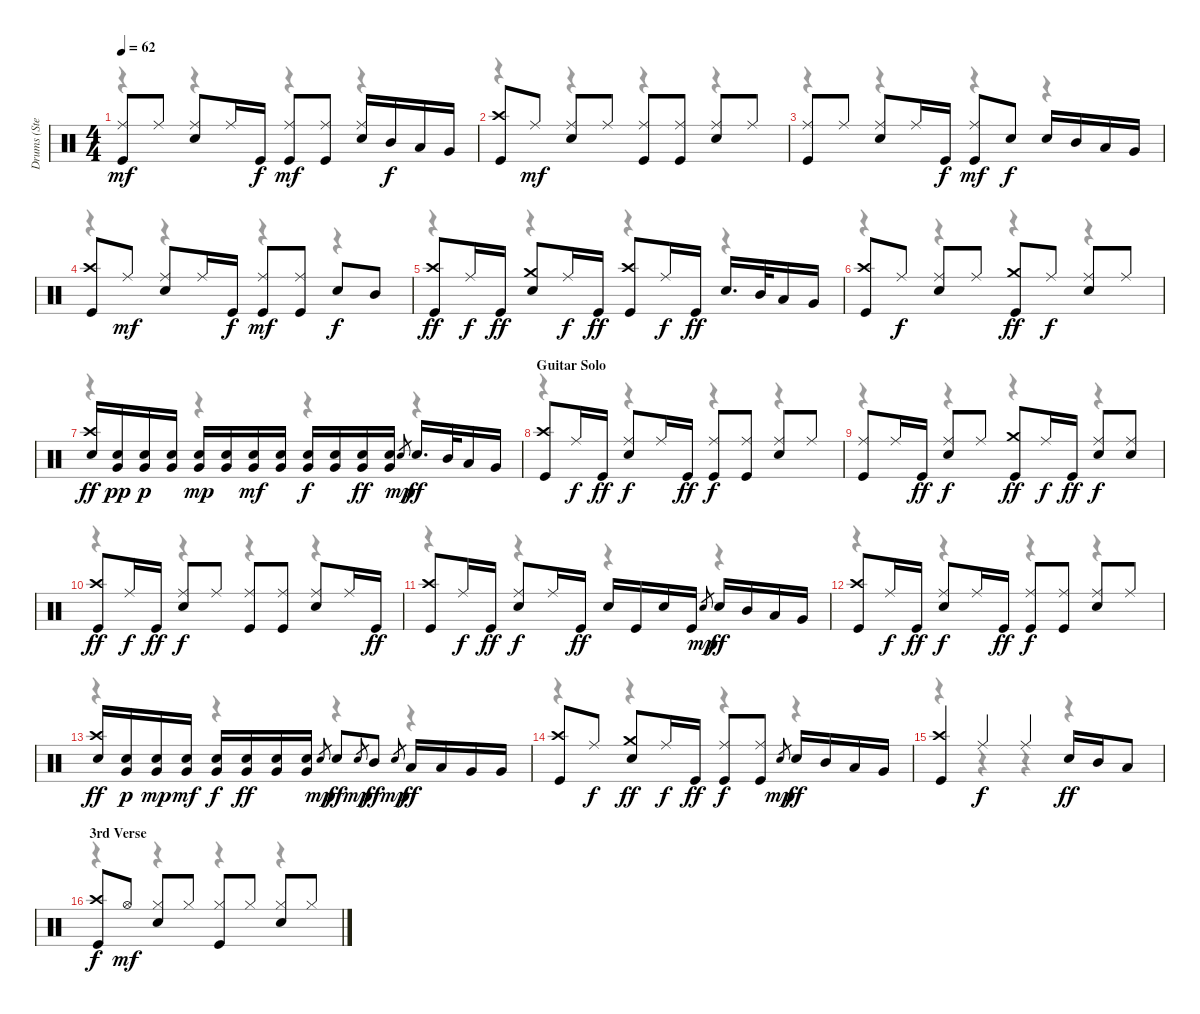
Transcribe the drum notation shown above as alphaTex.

\track ("Drums (Steven)" "Drums (Ste") {instrument percussion}
\staff {score}
\articulation defaults
\voice
\ts (4 4)
\tempo 62
\clef neutral
\ks c
("Ride (middle)" "Kick (hit)").8{dy mf} "Ride (middle)".8 ("Ride (middle)" "Snare (hit) 2").8 "Ride (middle)".16 "Kick (hit)".16{dy f} ("Ride (middle)" "Kick (hit)").8{dy mf} ("Ride (middle)" "Kick (hit)").8 ("Ride (middle)" "Snare (hit) 2").16 "Mid Tom (hit)".16{dy f} "Low Tom (hit)".16 "Very Low Tom (hit)".16 |
("Crash high (hit)" "Kick (hit)").8 "Ride (middle)".8{dy mf} ("Ride (middle)" "Snare (hit) 2").8 "Ride (middle)".8 ("Ride (middle)" "Kick (hit)").8 ("Ride (middle)" "Kick (hit)").8 ("Ride (middle)" "Snare (hit) 2").8 "Ride (middle)".8 |
("Ride (middle)" "Kick (hit)").8 "Ride (middle)".8 ("Ride (middle)" "Snare (hit) 2").8 "Ride (middle)".16 "Kick (hit)".16{dy f} ("Ride (middle)" "Kick (hit)").8{dy mf} "Snare (hit) 2".8{dy f} "Snare (hit) 2".16 "Mid Tom (hit)".16 "Low Tom (hit)".16 "Very Low Tom (hit)".16 |
("Crash high (hit)" "Kick (hit)").8 "Ride (middle)".8{dy mf} ("Ride (middle)" "Snare (hit) 2").8 "Ride (middle)".16 "Kick (hit)".16{dy f} ("Ride (middle)" "Kick (hit)").8{dy mf} ("Ride (middle)" "Kick (hit)").8 "Snare (hit) 2".8{dy f} "Mid Tom (hit)".8 |
("Crash high (hit)" "Kick (hit)").8{dy ff} "Ride (middle)".16{dy f} "Kick (hit)".16{dy ff} ("Crash medium (hit)" "Snare (hit) 2").8 "Ride (middle)".16{dy f} "Kick (hit)".16{dy ff} ("Crash high (hit)" "Kick (hit)").8 "Ride (middle)".16{dy f} "Kick (hit)".16{dy ff} "Snare (hit) 2".16{d} "Mid Tom (hit)".32 "Low Tom (hit)".16 "Very Low Tom (hit)".16 |
("Crash high (hit)" "Kick (hit)").8 "Ride (middle)".8{dy f} ("Ride (middle)" "Snare (hit) 2").8 "Ride (middle)".8 ("Crash medium (hit)" "Kick (hit)").8{dy ff} "Ride (middle)".8{dy f} ("Ride (middle)" "Snare (hit) 2").8 "Ride (middle)".8 |
("Crash high (hit)" "Snare (hit) 2").16{dy ff} ("Snare (hit) 2" "Very Low Tom (hit)").16{dy pp} ("Snare (hit) 2" "Very Low Tom (hit)").16{dy p} ("Snare (hit) 2" "Very Low Tom (hit)").16 ("Snare (hit) 2" "Very Low Tom (hit)").16{dy mp} ("Snare (hit) 2" "Very Low Tom (hit)").16 ("Snare (hit) 2" "Very Low Tom (hit)").16{dy mf} ("Snare (hit) 2" "Very Low Tom (hit)").16 ("Snare (hit) 2" "Very Low Tom (hit)").16{dy f} ("Snare (hit) 2" "Very Low Tom (hit)").16 ("Snare (hit) 2" "Very Low Tom (hit)").16{dy ff} ("Snare (hit) 2" "Very Low Tom (hit)").16 "Snare (hit)".8{gr dy mp} "Snare (hit) 2".16{d dy ff} "Mid Tom (hit)".32 "Low Tom (hit)".16 "Very Low Tom (hit)".16 |
\section ("" "Guitar Solo")
("Crash high (hit)" "Kick (hit)").8 "Ride (middle)".16{dy f} "Kick (hit)".16{dy ff} ("Ride (middle)" "Snare (hit) 2").8{dy f} "Ride (middle)".16 "Kick (hit)".16{dy ff} ("Ride (middle)" "Kick (hit)").8{dy f} ("Ride (middle)" "Kick (hit)").8 ("Ride (middle)" "Snare (hit) 2").8 "Ride (middle)".8 |
("Ride (middle)" "Kick (hit)").8 "Ride (middle)".16 "Kick (hit)".16{dy ff} ("Ride (middle)" "Snare (hit) 2").8{dy f} "Ride (middle)".8 ("Crash medium (hit)" "Kick (hit)").8{dy ff} "Ride (middle)".16{dy f} "Kick (hit)".16{dy ff} ("Ride (middle)" "Snare (hit) 2").8{dy f} ("Ride (middle)" "Snare (hit) 2").8 |
("Crash high (hit)" "Kick (hit)").8{dy ff} "Ride (middle)".16{dy f} "Kick (hit)".16{dy ff} ("Ride (middle)" "Snare (hit) 2").8{dy f} "Ride (middle)".8 ("Ride (middle)" "Kick (hit)").8 ("Ride (middle)" "Kick (hit)").8 ("Ride (middle)" "Snare (hit) 2").8 "Ride (middle)".16 "Kick (hit)".16{dy ff} |
("Crash high (hit)" "Kick (hit)").8 "Ride (middle)".16{dy f} "Kick (hit)".16{dy ff} ("Ride (middle)" "Snare (hit) 2").8{dy f} "Ride (middle)".16 "Kick (hit)".16{dy ff} "Snare (hit) 2".16 "Kick (hit)".16 "Snare (hit) 2".16 "Kick (hit)".16 "Snare (hit)".8{gr dy mp} "Snare (hit) 2".16{dy ff} "Mid Tom (hit)".16 "Low Tom (hit)".16 "Very Low Tom (hit)".16 |
("Crash high (hit)" "Kick (hit)").8 "Ride (middle)".16{dy f} "Kick (hit)".16{dy ff} ("Ride (middle)" "Snare (hit) 2").8{dy f} "Ride (middle)".16 "Kick (hit)".16{dy ff} ("Ride (middle)" "Kick (hit)").8{dy f} ("Ride (middle)" "Kick (hit)").8 ("Ride (middle)" "Snare (hit) 2").8 "Ride (middle)".8 |
("Crash high (hit)" "Snare (hit) 2").16{dy ff} ("Snare (hit) 2" "Very Low Tom (hit)").16{dy p} ("Snare (hit) 2" "Very Low Tom (hit)").16{dy mp} ("Snare (hit) 2" "Very Low Tom (hit)").16{dy mf} ("Snare (hit) 2" "Very Low Tom (hit)").16{dy f} ("Snare (hit) 2" "Very Low Tom (hit)").16{dy ff} ("Snare (hit) 2" "Very Low Tom (hit)").16 ("Snare (hit) 2" "Very Low Tom (hit)").16 "Snare (hit)".8{gr dy mp} "Snare (hit) 2".8{dy ff} "Snare (hit)".8{gr dy mp} "Mid Tom (hit)".8{dy ff} "Snare (hit)".8{gr dy mp} "Low Tom (hit)".16{dy ff} "Low Tom (hit)".16 "Very Low Tom (hit)".16 "Very Low Tom (hit)".16 |
("Crash high (hit)" "Kick (hit)").8 "Ride (middle)".8{dy f} ("Crash medium (hit)" "Snare (hit) 2").8{dy ff} "Ride (middle)".16{dy f} "Kick (hit)".16{dy ff} ("Ride (middle)" "Kick (hit)").8{dy f} ("Ride (middle)" "Kick (hit)").8 "Snare (hit)".8{gr dy mp} "Snare (hit) 2".16{dy ff} "Mid Tom (hit)".16 "Low Tom (hit)".16 "Very Low Tom (hit)".16 |
("Crash high (hit)" "Kick (hit)").4 "Ride (middle)".4{dy f} "Ride (middle)".4 "Snare (hit) 2".16{dy ff} "Mid Tom (hit)".16 "Low Tom (hit)".8 |
\section ("" "3rd Verse")
("Crash high (hit)" "Kick (hit)").8{dy f} "Hi-Hat (open)".8{dy mf} ("Hi-Hat (closed)" "Snare (hit) 2").8 "Hi-Hat (closed)".8 ("Hi-Hat (closed)" "Kick (hit)").8 "Hi-Hat (closed)".8 ("Hi-Hat (closed)" "Snare (hit) 2").8 "Hi-Hat (closed)".8
\voice
\clef neutral
\ottava regular
\simile none
\ks c
r.4{dy f} r.4 r.4 r.4 |
r.4 r.4 r.4 r.4 |
r.4 r.4 r.4 r.4 |
r.4 r.4 r.4 r.4 |
r.4 r.4 r.4 r.4 |
r.4 r.4 r.4 r.4 |
r.4 r.4 r.4 r.4 |
r.4 r.4 r.4 r.4 |
r.4 r.4 r.4 r.4 |
r.4 r.4 r.4 r.4 |
r.4 r.4 r.4 r.4 |
r.4 r.4 r.4 r.4 |
r.4 r.4 r.4 r.4 |
r.4 r.4 r.4 r.4 |
r.4 r.4 r.4 r.4 |
r.4 r.4 r.4 r.4
